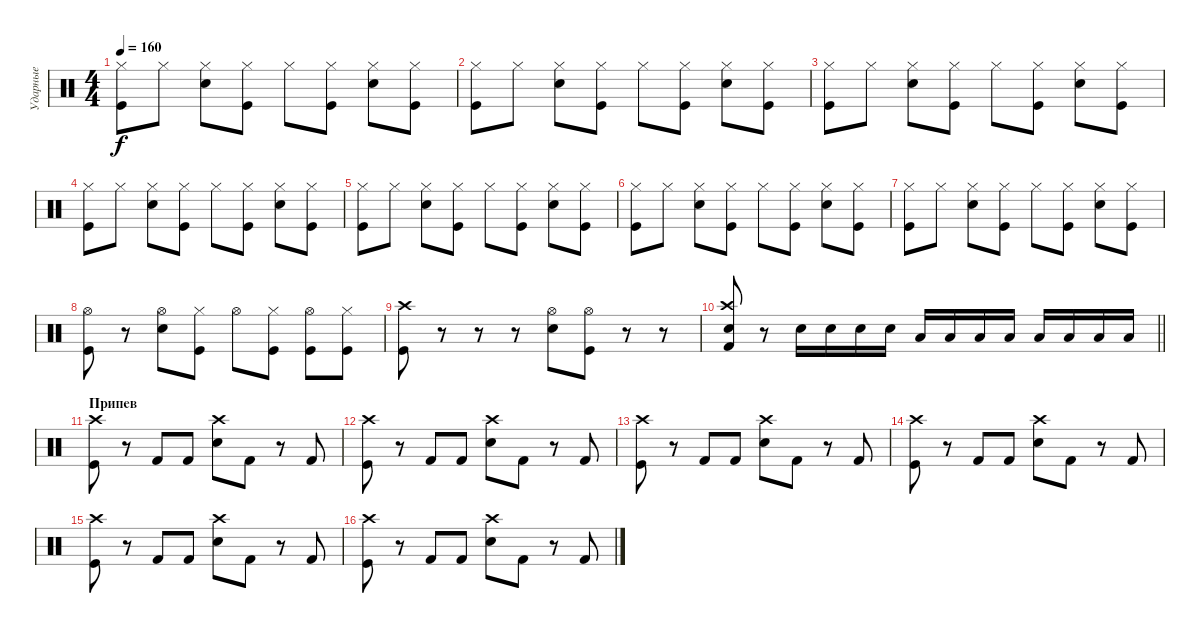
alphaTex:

\track ("Ударные" "Ударные") {instrument percussion}
\staff {score}
\articulation defaults
\ts (4 4)
\tempo 160
\clef neutral
\ks c
("Kick (hit)" "Hi-Hat (closed)").8{dy f} "Hi-Hat (closed)".8 ("Snare (hit) 2" "Hi-Hat (closed)").8 ("Kick (hit)" "Hi-Hat (closed)").8 "Hi-Hat (closed)".8 ("Kick (hit)" "Hi-Hat (closed)").8 ("Snare (hit) 2" "Hi-Hat (closed)").8 ("Kick (hit)" "Hi-Hat (closed)").8 |
("Kick (hit)" "Hi-Hat (closed)").8 "Hi-Hat (closed)".8 ("Snare (hit) 2" "Hi-Hat (closed)").8 ("Kick (hit)" "Hi-Hat (closed)").8 "Hi-Hat (closed)".8 ("Kick (hit)" "Hi-Hat (closed)").8 ("Snare (hit) 2" "Hi-Hat (closed)").8 ("Kick (hit)" "Hi-Hat (closed)").8 |
("Kick (hit)" "Hi-Hat (closed)").8 "Hi-Hat (closed)".8 ("Snare (hit) 2" "Hi-Hat (closed)").8 ("Kick (hit)" "Hi-Hat (closed)").8 "Hi-Hat (closed)".8 ("Kick (hit)" "Hi-Hat (closed)").8 ("Snare (hit) 2" "Hi-Hat (closed)").8 ("Kick (hit)" "Hi-Hat (closed)").8 |
("Kick (hit)" "Hi-Hat (closed)").8 "Hi-Hat (closed)".8 ("Snare (hit) 2" "Hi-Hat (closed)").8 ("Kick (hit)" "Hi-Hat (closed)").8 "Hi-Hat (closed)".8 ("Kick (hit)" "Hi-Hat (closed)").8 ("Snare (hit) 2" "Hi-Hat (closed)").8 ("Kick (hit)" "Hi-Hat (closed)").8 |
("Kick (hit)" "Hi-Hat (closed)").8 "Hi-Hat (closed)".8 ("Snare (hit) 2" "Hi-Hat (closed)").8 ("Kick (hit)" "Hi-Hat (closed)").8 "Hi-Hat (closed)".8 ("Kick (hit)" "Hi-Hat (closed)").8 ("Snare (hit) 2" "Hi-Hat (closed)").8 ("Kick (hit)" "Hi-Hat (closed)").8 |
("Kick (hit)" "Hi-Hat (closed)").8 "Hi-Hat (closed)".8 ("Snare (hit) 2" "Hi-Hat (closed)").8 ("Kick (hit)" "Hi-Hat (closed)").8 "Hi-Hat (closed)".8 ("Kick (hit)" "Hi-Hat (closed)").8 ("Snare (hit) 2" "Hi-Hat (closed)").8 ("Kick (hit)" "Hi-Hat (closed)").8 |
("Kick (hit)" "Hi-Hat (closed)").8 "Hi-Hat (closed)".8 ("Snare (hit) 2" "Hi-Hat (closed)").8 ("Kick (hit)" "Hi-Hat (closed)").8 "Hi-Hat (closed)".8 ("Kick (hit)" "Hi-Hat (closed)").8 ("Snare (hit) 2" "Hi-Hat (closed)").8 ("Kick (hit)" "Hi-Hat (closed)").8 |
("Kick (hit)" "Hi-Hat (open)").8 r.8 ("Snare (hit) 2" "Hi-Hat (open)").8 ("Kick (hit)" "Hi-Hat (closed)").8 "Hi-Hat (open)".8 ("Kick (hit)" "Hi-Hat (closed)").8 ("Kick (hit)" "Hi-Hat (open)").8 ("Kick (hit)" "Hi-Hat (closed)").8 |
("Kick (hit)" "Crash high (hit)").8 r.8 r.8 r.8 ("Snare (hit) 2" "Hi-Hat (open)").8 ("Kick (hit)" "Hi-Hat (open)").8 r.8 r.8 |
\barLineRight lightlight
("Snare (hit) 2" "Kick (hit) 2" "Crash high (hit)").8 r.8 "Snare (hit) 2".16 "Snare (hit) 2".16 "Snare (hit) 2".16 "Snare (hit) 2".16 "Low Tom (hit)".16 "Low Tom (hit)".16 "Low Tom (hit)".16 "Low Tom (hit)".16 "Low Floor Tom (hit)".16 "Low Floor Tom (hit)".16 "Low Floor Tom (hit)".16 "Low Floor Tom (hit)".16 |
\section ("" "Припев")
("Kick (hit)" "Crash high (hit)").8 r.8 "Kick (hit) 2".8 "Kick (hit) 2".8 ("Snare (hit) 2" "Crash high (hit)").8 "Kick (hit) 2".8 r.8 "Kick (hit) 2".8 |
("Kick (hit)" "Crash high (hit)").8 r.8 "Kick (hit) 2".8 "Kick (hit) 2".8 ("Snare (hit) 2" "Crash high (hit)").8 "Kick (hit) 2".8 r.8 "Kick (hit) 2".8 |
("Kick (hit)" "Crash high (hit)").8 r.8 "Kick (hit) 2".8 "Kick (hit) 2".8 ("Snare (hit) 2" "Crash high (hit)").8 "Kick (hit) 2".8 r.8 "Kick (hit) 2".8 |
("Kick (hit)" "Crash high (hit)").8 r.8 "Kick (hit) 2".8 "Kick (hit) 2".8 ("Snare (hit) 2" "Crash high (hit)").8 "Kick (hit) 2".8 r.8 "Kick (hit) 2".8 |
("Kick (hit)" "Crash high (hit)").8 r.8 "Kick (hit) 2".8 "Kick (hit) 2".8 ("Snare (hit) 2" "Crash high (hit)").8 "Kick (hit) 2".8 r.8 "Kick (hit) 2".8 |
("Kick (hit)" "Crash high (hit)").8 r.8 "Kick (hit) 2".8 "Kick (hit) 2".8 ("Snare (hit) 2" "Crash high (hit)").8 "Kick (hit) 2".8 r.8 "Kick (hit) 2".8
